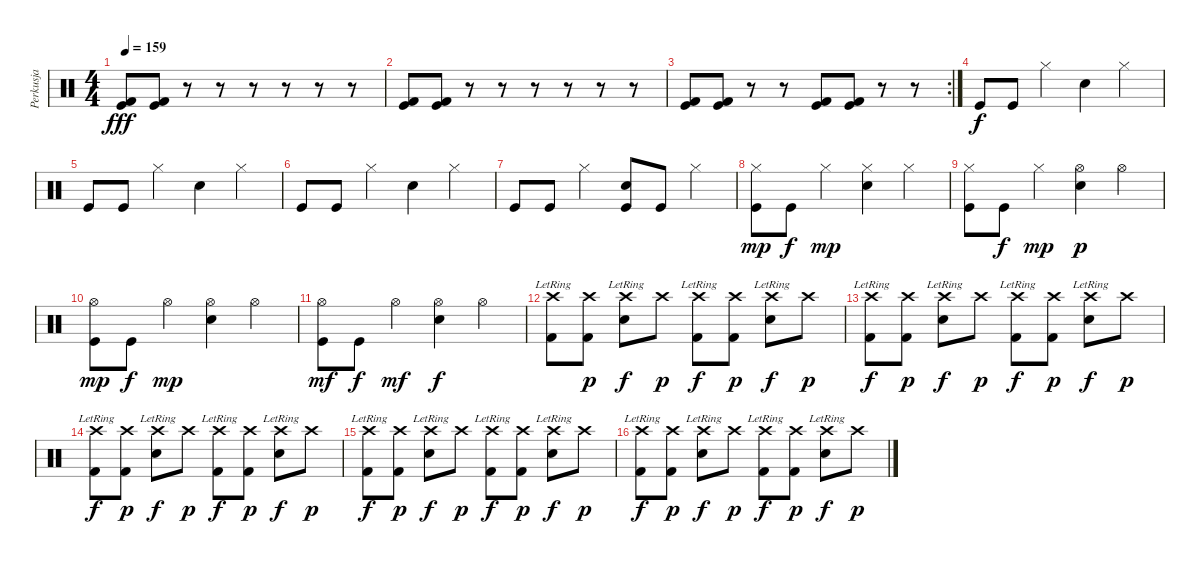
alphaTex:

\track ("Perkusja" "Perkusja") {instrument percussion}
\staff {score}
\articulation defaults
\ts (4 4)
\tempo 159
\clef neutral
\ks c
("Kick (hit) 2" "Kick (hit)").8{dy fff} ("Kick (hit) 2" "Kick (hit)").8 r.8 r.8 r.8 r.8 r.8 r.8 |
("Kick (hit) 2" "Kick (hit)").8 ("Kick (hit) 2" "Kick (hit)").8 r.8 r.8 r.8 r.8 r.8 r.8 |
\rc 2
("Kick (hit) 2" "Kick (hit)").8 ("Kick (hit) 2" "Kick (hit)").8 r.8 r.8 ("Kick (hit) 2" "Kick (hit)").8 ("Kick (hit) 2" "Kick (hit)").8 r.8 r.8 |
"Kick (hit)".8{dy f} "Kick (hit)".8 "Hi-Hat (closed)".4 "Electric Snare (hit)".4 "Hi-Hat (closed)".4 |
"Kick (hit)".8 "Kick (hit)".8 "Hi-Hat (closed)".4 "Electric Snare (hit)".4 "Hi-Hat (closed)".4 |
"Kick (hit)".8 "Kick (hit)".8 "Hi-Hat (closed)".4 "Electric Snare (hit)".4 "Hi-Hat (closed)".4 |
"Kick (hit)".8 "Kick (hit)".8 "Hi-Hat (closed)".4 ("Electric Snare (hit)" "Kick (hit)").8 "Kick (hit)".8 "Hi-Hat (closed)".4 |
("Hi-Hat (closed)" "Kick (hit)").8{dy mp} "Kick (hit)".8{dy f} "Hi-Hat (closed)".4{dy mp} ("Hi-Hat (closed)" "Electric Snare (hit)").4 "Hi-Hat (closed)".4 |
("Hi-Hat (closed)" "Kick (hit)").8 "Kick (hit)".8{dy f} "Hi-Hat (closed)".4{dy mp} ("Hi-Hat (open)" "Electric Snare (hit)").4{dy p} "Hi-Hat (open)".4 |
("Hi-Hat (open)" "Kick (hit)").8{dy mp} "Kick (hit)".8{dy f} "Hi-Hat (open)".4{dy mp} ("Hi-Hat (open)" "Electric Snare (hit)").4 "Hi-Hat (open)".4 |
("Hi-Hat (open)" "Kick (hit)").8{dy mf} "Kick (hit)".8{dy f} "Hi-Hat (open)".4{dy mf} ("Hi-Hat (open)" "Electric Snare (hit)").4{dy f} "Hi-Hat (open)".4 |
("Crash high (hit)"{lr} "Kick (hit) 2").8 ("Crash high (hit)" "Kick (hit) 2").8{dy p} ("Crash high (hit)"{lr} "Electric Snare (hit)").8{dy f} "Crash high (hit)".8{dy p} ("Crash high (hit)"{lr} "Kick (hit) 2").8{dy f} ("Crash high (hit)" "Kick (hit) 2").8{dy p} ("Crash high (hit)"{lr} "Electric Snare (hit)").8{dy f} "Crash high (hit)".8{dy p} |
("Crash high (hit)"{lr} "Kick (hit) 2").8{dy f} ("Crash high (hit)" "Kick (hit) 2").8{dy p} ("Crash high (hit)"{lr} "Electric Snare (hit)").8{dy f} "Crash high (hit)".8{dy p} ("Crash high (hit)"{lr} "Kick (hit) 2").8{dy f} ("Crash high (hit)" "Kick (hit) 2").8{dy p} ("Crash high (hit)"{lr} "Electric Snare (hit)").8{dy f} "Crash high (hit)".8{dy p} |
("Crash high (hit)"{lr} "Kick (hit) 2").8{dy f} ("Crash high (hit)" "Kick (hit) 2").8{dy p} ("Crash high (hit)"{lr} "Electric Snare (hit)").8{dy f} "Crash high (hit)".8{dy p} ("Crash high (hit)"{lr} "Kick (hit) 2").8{dy f} ("Crash high (hit)" "Kick (hit) 2").8{dy p} ("Crash high (hit)"{lr} "Electric Snare (hit)").8{dy f} "Crash high (hit)".8{dy p} |
("Crash high (hit)"{lr} "Kick (hit) 2").8{dy f} ("Crash high (hit)" "Kick (hit) 2").8{dy p} ("Crash high (hit)"{lr} "Electric Snare (hit)").8{dy f} "Crash high (hit)".8{dy p} ("Crash high (hit)"{lr} "Kick (hit) 2").8{dy f} ("Crash high (hit)" "Kick (hit) 2").8{dy p} ("Crash high (hit)"{lr} "Electric Snare (hit)").8{dy f} "Crash high (hit)".8{dy p} |
("Crash high (hit)"{lr} "Kick (hit) 2").8{dy f} ("Crash high (hit)" "Kick (hit) 2").8{dy p} ("Crash high (hit)"{lr} "Electric Snare (hit)").8{dy f} "Crash high (hit)".8{dy p} ("Crash high (hit)"{lr} "Kick (hit) 2").8{dy f} ("Crash high (hit)" "Kick (hit) 2").8{dy p} ("Crash high (hit)"{lr} "Electric Snare (hit)").8{dy f} "Crash high (hit)".8{dy p}
